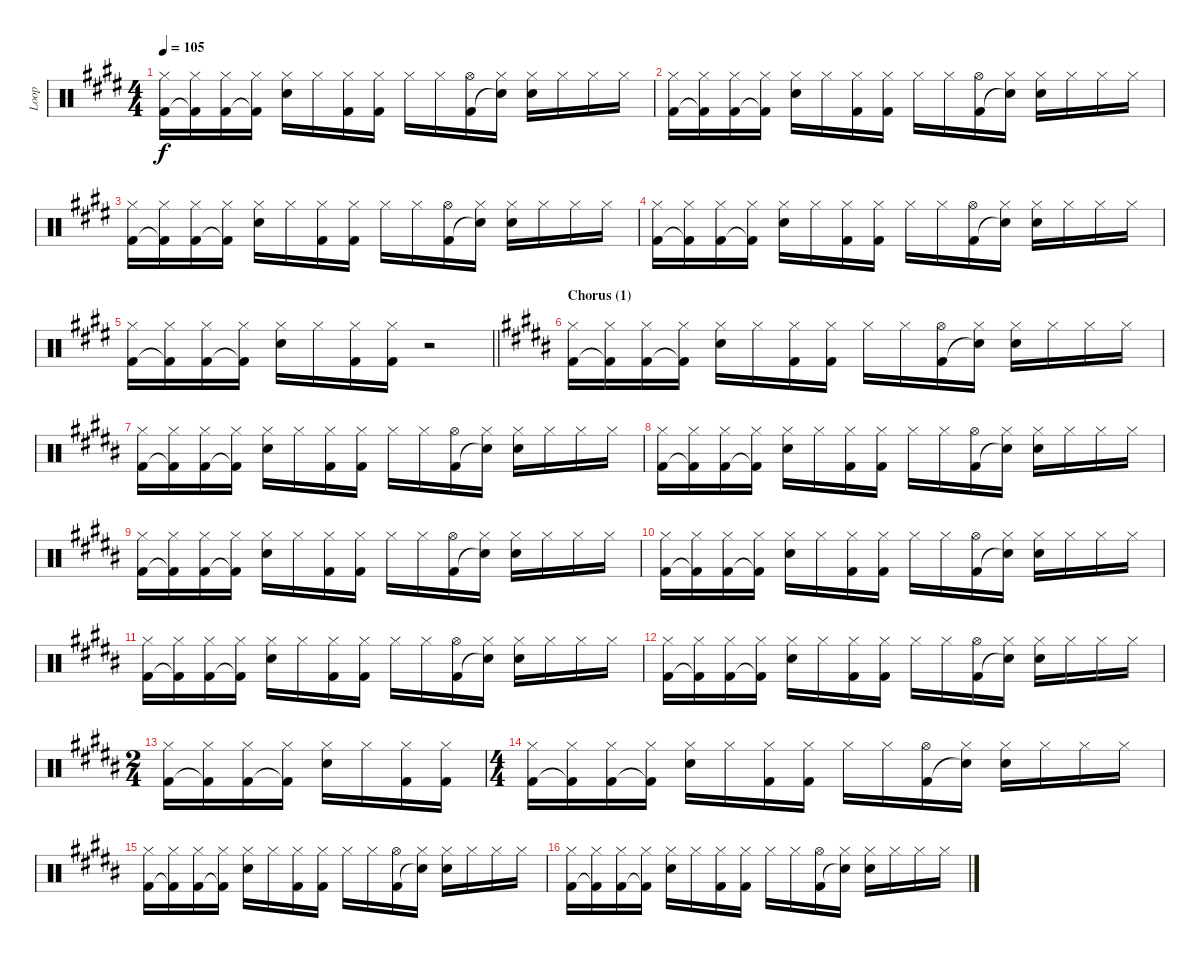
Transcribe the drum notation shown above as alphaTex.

\track ("Loop" "Loop") {instrument percussion}
\staff {score}
\articulation defaults
\ts (4 4)
\tempo 105
\clef neutral
\ks e
("Hi-Hat (closed)" "Kick (hit) 2").16{dy f} ("Hi-Hat (closed)" "Kick (hit) 2"{t}).16 ("Hi-Hat (closed)" "Kick (hit) 2").16 ("Hi-Hat (closed)" "Kick (hit) 2"{t}).16 ("Hi-Hat (closed)" "Electric Snare (hit)").16 "Hi-Hat (closed)".16 ("Hi-Hat (closed)" "Kick (hit) 2").16 ("Hi-Hat (closed)" "Kick (hit) 2").16 "Hi-Hat (closed)".16 "Hi-Hat (closed)".16 ("Hi-Hat (open)" "Kick (hit) 2").16 ("Hi-Hat (closed)" "Snare (hit)"{t}).16 ("Hi-Hat (closed)" "Electric Snare (hit)").16 "Hi-Hat (closed)".16 "Hi-Hat (closed)".16 "Hi-Hat (closed)".16 |
("Hi-Hat (closed)" "Kick (hit) 2").16 ("Hi-Hat (closed)" "Kick (hit) 2"{t}).16 ("Hi-Hat (closed)" "Kick (hit) 2").16 ("Hi-Hat (closed)" "Kick (hit) 2"{t}).16 ("Hi-Hat (closed)" "Electric Snare (hit)").16 "Hi-Hat (closed)".16 ("Hi-Hat (closed)" "Kick (hit) 2").16 ("Hi-Hat (closed)" "Kick (hit) 2").16 "Hi-Hat (closed)".16 "Hi-Hat (closed)".16 ("Hi-Hat (open)" "Kick (hit) 2").16 ("Hi-Hat (closed)" "Snare (hit)"{t}).16 ("Hi-Hat (closed)" "Electric Snare (hit)").16 "Hi-Hat (closed)".16 "Hi-Hat (closed)".16 "Hi-Hat (closed)".16 |
("Hi-Hat (closed)" "Kick (hit) 2").16 ("Hi-Hat (closed)" "Kick (hit) 2"{t}).16 ("Hi-Hat (closed)" "Kick (hit) 2").16 ("Hi-Hat (closed)" "Kick (hit) 2"{t}).16 ("Hi-Hat (closed)" "Electric Snare (hit)").16 "Hi-Hat (closed)".16 ("Hi-Hat (closed)" "Kick (hit) 2").16 ("Hi-Hat (closed)" "Kick (hit) 2").16 "Hi-Hat (closed)".16 "Hi-Hat (closed)".16 ("Hi-Hat (open)" "Kick (hit) 2").16 ("Hi-Hat (closed)" "Snare (hit)"{t}).16 ("Hi-Hat (closed)" "Electric Snare (hit)").16 "Hi-Hat (closed)".16 "Hi-Hat (closed)".16 "Hi-Hat (closed)".16 |
("Hi-Hat (closed)" "Kick (hit) 2").16 ("Hi-Hat (closed)" "Kick (hit) 2"{t}).16 ("Hi-Hat (closed)" "Kick (hit) 2").16 ("Hi-Hat (closed)" "Kick (hit) 2"{t}).16 ("Hi-Hat (closed)" "Electric Snare (hit)").16 "Hi-Hat (closed)".16 ("Hi-Hat (closed)" "Kick (hit) 2").16 ("Hi-Hat (closed)" "Kick (hit) 2").16 "Hi-Hat (closed)".16 "Hi-Hat (closed)".16 ("Hi-Hat (open)" "Kick (hit) 2").16 ("Hi-Hat (closed)" "Snare (hit)"{t}).16 ("Hi-Hat (closed)" "Electric Snare (hit)").16 "Hi-Hat (closed)".16 "Hi-Hat (closed)".16 "Hi-Hat (closed)".16 |
\barLineRight lightlight
("Hi-Hat (closed)" "Kick (hit) 2").16 ("Hi-Hat (closed)" "Kick (hit) 2"{t}).16 ("Hi-Hat (closed)" "Kick (hit) 2").16 ("Hi-Hat (closed)" "Kick (hit) 2"{t}).16 ("Hi-Hat (closed)" "Electric Snare (hit)").16 "Hi-Hat (closed)".16 ("Hi-Hat (closed)" "Kick (hit) 2").16 ("Hi-Hat (closed)" "Kick (hit) 2").16 r.2 |
\section ("" "Chorus (1)")
\ks g#minor
("Hi-Hat (closed)" "Kick (hit) 2").16 ("Hi-Hat (closed)" "Kick (hit) 2"{t}).16 ("Hi-Hat (closed)" "Kick (hit) 2").16 ("Hi-Hat (closed)" "Kick (hit) 2"{t}).16 ("Hi-Hat (closed)" "Electric Snare (hit)").16 "Hi-Hat (closed)".16 ("Hi-Hat (closed)" "Kick (hit) 2").16 ("Hi-Hat (closed)" "Kick (hit) 2").16 "Hi-Hat (closed)".16 "Hi-Hat (closed)".16 ("Hi-Hat (open)" "Kick (hit) 2").16 ("Hi-Hat (closed)" "Snare (hit)"{t}).16 ("Hi-Hat (closed)" "Electric Snare (hit)").16 "Hi-Hat (closed)".16 "Hi-Hat (closed)".16 "Hi-Hat (closed)".16 |
("Hi-Hat (closed)" "Kick (hit) 2").16 ("Hi-Hat (closed)" "Kick (hit) 2"{t}).16 ("Hi-Hat (closed)" "Kick (hit) 2").16 ("Hi-Hat (closed)" "Kick (hit) 2"{t}).16 ("Hi-Hat (closed)" "Electric Snare (hit)").16 "Hi-Hat (closed)".16 ("Hi-Hat (closed)" "Kick (hit) 2").16 ("Hi-Hat (closed)" "Kick (hit) 2").16 "Hi-Hat (closed)".16 "Hi-Hat (closed)".16 ("Hi-Hat (open)" "Kick (hit) 2").16 ("Hi-Hat (closed)" "Snare (hit)"{t}).16 ("Hi-Hat (closed)" "Electric Snare (hit)").16 "Hi-Hat (closed)".16 "Hi-Hat (closed)".16 "Hi-Hat (closed)".16 |
("Hi-Hat (closed)" "Kick (hit) 2").16 ("Hi-Hat (closed)" "Kick (hit) 2"{t}).16 ("Hi-Hat (closed)" "Kick (hit) 2").16 ("Hi-Hat (closed)" "Kick (hit) 2"{t}).16 ("Hi-Hat (closed)" "Electric Snare (hit)").16 "Hi-Hat (closed)".16 ("Hi-Hat (closed)" "Kick (hit) 2").16 ("Hi-Hat (closed)" "Kick (hit) 2").16 "Hi-Hat (closed)".16 "Hi-Hat (closed)".16 ("Hi-Hat (open)" "Kick (hit) 2").16 ("Hi-Hat (closed)" "Snare (hit)"{t}).16 ("Hi-Hat (closed)" "Electric Snare (hit)").16 "Hi-Hat (closed)".16 "Hi-Hat (closed)".16 "Hi-Hat (closed)".16 |
("Hi-Hat (closed)" "Kick (hit) 2").16 ("Hi-Hat (closed)" "Kick (hit) 2"{t}).16 ("Hi-Hat (closed)" "Kick (hit) 2").16 ("Hi-Hat (closed)" "Kick (hit) 2"{t}).16 ("Hi-Hat (closed)" "Electric Snare (hit)").16 "Hi-Hat (closed)".16 ("Hi-Hat (closed)" "Kick (hit) 2").16 ("Hi-Hat (closed)" "Kick (hit) 2").16 "Hi-Hat (closed)".16 "Hi-Hat (closed)".16 ("Hi-Hat (open)" "Kick (hit) 2").16 ("Hi-Hat (closed)" "Snare (hit)"{t}).16 ("Hi-Hat (closed)" "Electric Snare (hit)").16 "Hi-Hat (closed)".16 "Hi-Hat (closed)".16 "Hi-Hat (closed)".16 |
("Hi-Hat (closed)" "Kick (hit) 2").16 ("Hi-Hat (closed)" "Kick (hit) 2"{t}).16 ("Hi-Hat (closed)" "Kick (hit) 2").16 ("Hi-Hat (closed)" "Kick (hit) 2"{t}).16 ("Hi-Hat (closed)" "Electric Snare (hit)").16 "Hi-Hat (closed)".16 ("Hi-Hat (closed)" "Kick (hit) 2").16 ("Hi-Hat (closed)" "Kick (hit) 2").16 "Hi-Hat (closed)".16 "Hi-Hat (closed)".16 ("Hi-Hat (open)" "Kick (hit) 2").16 ("Hi-Hat (closed)" "Snare (hit)"{t}).16 ("Hi-Hat (closed)" "Electric Snare (hit)").16 "Hi-Hat (closed)".16 "Hi-Hat (closed)".16 "Hi-Hat (closed)".16 |
("Hi-Hat (closed)" "Kick (hit) 2").16 ("Hi-Hat (closed)" "Kick (hit) 2"{t}).16 ("Hi-Hat (closed)" "Kick (hit) 2").16 ("Hi-Hat (closed)" "Kick (hit) 2"{t}).16 ("Hi-Hat (closed)" "Electric Snare (hit)").16 "Hi-Hat (closed)".16 ("Hi-Hat (closed)" "Kick (hit) 2").16 ("Hi-Hat (closed)" "Kick (hit) 2").16 "Hi-Hat (closed)".16 "Hi-Hat (closed)".16 ("Hi-Hat (open)" "Kick (hit) 2").16 ("Hi-Hat (closed)" "Snare (hit)"{t}).16 ("Hi-Hat (closed)" "Electric Snare (hit)").16 "Hi-Hat (closed)".16 "Hi-Hat (closed)".16 "Hi-Hat (closed)".16 |
("Hi-Hat (closed)" "Kick (hit) 2").16 ("Hi-Hat (closed)" "Kick (hit) 2"{t}).16 ("Hi-Hat (closed)" "Kick (hit) 2").16 ("Hi-Hat (closed)" "Kick (hit) 2"{t}).16 ("Hi-Hat (closed)" "Electric Snare (hit)").16 "Hi-Hat (closed)".16 ("Hi-Hat (closed)" "Kick (hit) 2").16 ("Hi-Hat (closed)" "Kick (hit) 2").16 "Hi-Hat (closed)".16 "Hi-Hat (closed)".16 ("Hi-Hat (open)" "Kick (hit) 2").16 ("Hi-Hat (closed)" "Snare (hit)"{t}).16 ("Hi-Hat (closed)" "Electric Snare (hit)").16 "Hi-Hat (closed)".16 "Hi-Hat (closed)".16 "Hi-Hat (closed)".16 |
\ts (2 4)
("Hi-Hat (closed)" "Kick (hit) 2").16 ("Hi-Hat (closed)" "Kick (hit) 2"{t}).16 ("Hi-Hat (closed)" "Kick (hit) 2").16 ("Hi-Hat (closed)" "Kick (hit) 2"{t}).16 ("Hi-Hat (closed)" "Electric Snare (hit)").16 "Hi-Hat (closed)".16 ("Hi-Hat (closed)" "Kick (hit) 2").16 ("Hi-Hat (closed)" "Kick (hit) 2").16 |
\ts (4 4)
("Hi-Hat (closed)" "Kick (hit) 2").16 ("Hi-Hat (closed)" "Kick (hit) 2"{t}).16 ("Hi-Hat (closed)" "Kick (hit) 2").16 ("Hi-Hat (closed)" "Kick (hit) 2"{t}).16 ("Hi-Hat (closed)" "Electric Snare (hit)").16 "Hi-Hat (closed)".16 ("Hi-Hat (closed)" "Kick (hit) 2").16 ("Hi-Hat (closed)" "Kick (hit) 2").16 "Hi-Hat (closed)".16 "Hi-Hat (closed)".16 ("Hi-Hat (open)" "Kick (hit) 2").16 ("Hi-Hat (closed)" "Snare (hit)"{t}).16 ("Hi-Hat (closed)" "Electric Snare (hit)").16 "Hi-Hat (closed)".16 "Hi-Hat (closed)".16 "Hi-Hat (closed)".16 |
("Hi-Hat (closed)" "Kick (hit) 2").16 ("Hi-Hat (closed)" "Kick (hit) 2"{t}).16 ("Hi-Hat (closed)" "Kick (hit) 2").16 ("Hi-Hat (closed)" "Kick (hit) 2"{t}).16 ("Hi-Hat (closed)" "Electric Snare (hit)").16 "Hi-Hat (closed)".16 ("Hi-Hat (closed)" "Kick (hit) 2").16 ("Hi-Hat (closed)" "Kick (hit) 2").16 "Hi-Hat (closed)".16 "Hi-Hat (closed)".16 ("Hi-Hat (open)" "Kick (hit) 2").16 ("Hi-Hat (closed)" "Snare (hit)"{t}).16 ("Hi-Hat (closed)" "Electric Snare (hit)").16 "Hi-Hat (closed)".16 "Hi-Hat (closed)".16 "Hi-Hat (closed)".16 |
("Hi-Hat (closed)" "Kick (hit) 2").16 ("Hi-Hat (closed)" "Kick (hit) 2"{t}).16 ("Hi-Hat (closed)" "Kick (hit) 2").16 ("Hi-Hat (closed)" "Kick (hit) 2"{t}).16 ("Hi-Hat (closed)" "Electric Snare (hit)").16 "Hi-Hat (closed)".16 ("Hi-Hat (closed)" "Kick (hit) 2").16 ("Hi-Hat (closed)" "Kick (hit) 2").16 "Hi-Hat (closed)".16 "Hi-Hat (closed)".16 ("Hi-Hat (open)" "Kick (hit) 2").16 ("Hi-Hat (closed)" "Snare (hit)"{t}).16 ("Hi-Hat (closed)" "Electric Snare (hit)").16 "Hi-Hat (closed)".16 "Hi-Hat (closed)".16 "Hi-Hat (closed)".16
